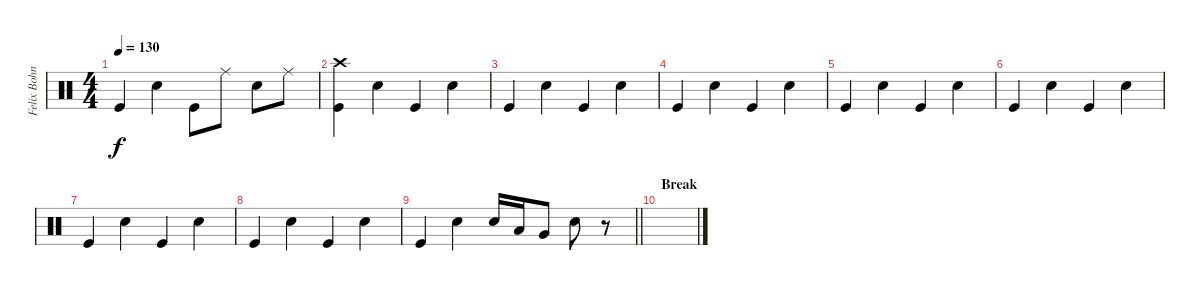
\track ("Felix Bohnke" "Felix Bohn") {instrument percussion}
\staff {score}
\articulation defaults
\ts (4 4)
\tempo 130
\clef neutral
\ks c "Kick (hit)".4{dy f} "Snare (hit) 2".4 "Kick (hit)".8 "Ride (middle)".8 "Snare (hit) 2".8 "Ride (middle)".8
|
("Crash high (hit)" "Kick (hit)").4 "Snare (hit) 2".4 "Kick (hit)".4 "Snare (hit) 2".4 |
"Kick (hit)".4 "Snare (hit) 2".4 "Kick (hit)".4 "Snare (hit) 2".4 |
"Kick (hit)".4 "Snare (hit) 2".4 "Kick (hit)".4 "Snare (hit) 2".4 |
"Kick (hit)".4 "Snare (hit) 2".4 "Kick (hit)".4 "Snare (hit) 2".4 |
"Kick (hit)".4 "Snare (hit) 2".4 "Kick (hit)".4 "Snare (hit) 2".4 |
"Kick (hit)".4 "Snare (hit) 2".4 "Kick (hit)".4 "Snare (hit) 2".4 |
"Kick (hit)".4 "Snare (hit) 2".4 "Kick (hit)".4 "Snare (hit) 2".4 |
\barLineRight lightlight "Kick (hit)".4 "Snare (hit) 2".4 "Snare (hit) 2".16 "Low Tom (hit)".16 "Very Low Tom (hit)".8 "Snare (hit) 2".8
r.8 |
\section ("" "Break")
